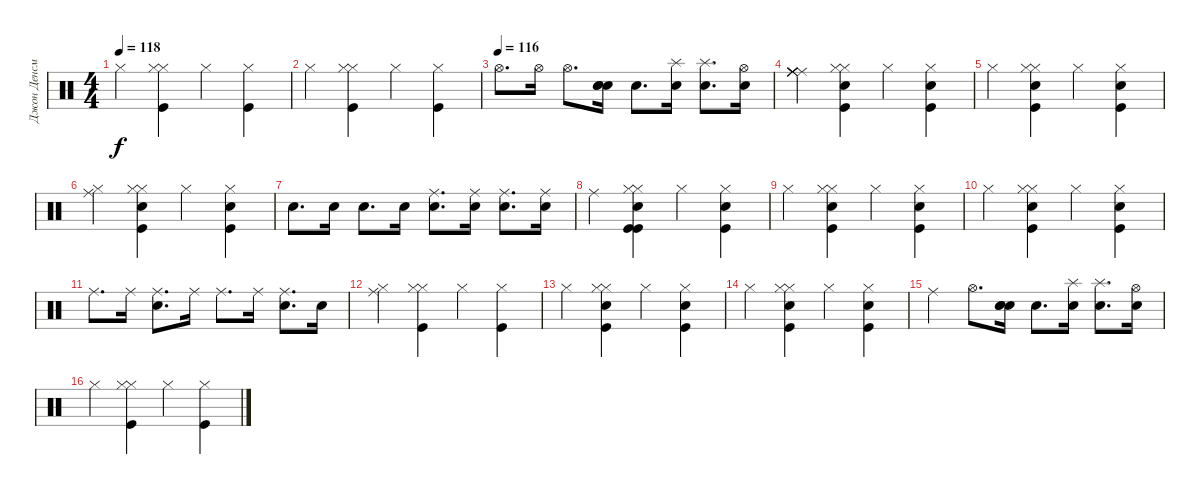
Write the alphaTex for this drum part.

\track ("Джон Денсмор" "Джон Денсм") {instrument percussion}
\staff {score}
\articulation defaults
\ts (4 4)
\tempo 118
\clef neutral
\ks c "Hi-Hat (closed)".4{dy f}
("Hi-Hat (closed)" "Hi-Hat (closed)" "Kick (hit)").4 "Hi-Hat (closed)".4 ("Hi-Hat (closed)" "Kick (hit)").4 |
"Hi-Hat (closed)".4 ("Hi-Hat (closed)" "Hi-Hat (closed)" "Kick (hit)").4 "Hi-Hat (closed)".4 ("Hi-Hat (closed)" "Kick (hit)").4 |
\tempo (116)
"Hi-Hat (open)".8{d} "Hi-Hat (open)".16 "Hi-Hat (open)".8{d} ("Snare (hit) 2" "Snare (hit) 2" "Snare (hit) 2").16 "Snare (hit) 2".8{d} ("Splash (hit)" "Snare (hit) 2").16 ("Splash (hit)" "Snare (hit) 2").8{d} ("Hi-Hat (open)" "Snare (hit) 2").16 |
("Ride (middle)" "Ride (middle)" "Ride (middle)" "Ride (middle)" "Ride (middle)" "Ride (middle)").4 ("Hi-Hat (closed)" "Hi-Hat (closed)" "Kick (hit)" "Snare (hit) 2").4 "Hi-Hat (closed)".4 ("Hi-Hat (closed)" "Snare (hit) 2" "Kick (hit)").4 |
"Hi-Hat (closed)".4 ("Hi-Hat (closed)" "Hi-Hat (closed)" "Kick (hit)" "Snare (hit) 2").4 "Hi-Hat (closed)".4 ("Hi-Hat (closed)" "Snare (hit) 2" "Kick (hit)").4 |
("Hi-Hat (closed)" "Ride (middle)").4 ("Hi-Hat (closed)" "Hi-Hat (closed)" "Kick (hit)" "Snare (hit) 2").4 "Hi-Hat (closed)".4 ("Hi-Hat (closed)" "Snare (hit) 2" "Kick (hit)").4 |
"Snare (hit) 2".8{d} "Snare (hit) 2".16 "Snare (hit) 2".8{d} "Snare (hit) 2".16 ("Ride (middle)" "Snare (hit) 2").8{d} ("Ride (middle)" "Snare (hit) 2").16 ("Ride (middle)" "Snare (hit) 2").8{d} ("Ride (middle)" "Snare (hit) 2").16 |
"Ride (middle)".4 ("Hi-Hat (closed)" "Hi-Hat (closed)" "Kick (hit)" "Kick (hit)" "Snare (hit) 2").4 "Hi-Hat (closed)".4 ("Hi-Hat (closed)" "Snare (hit) 2" "Kick (hit)").4 |
"Hi-Hat (closed)".4 ("Hi-Hat (closed)" "Hi-Hat (closed)" "Kick (hit)" "Snare (hit) 2").4 "Hi-Hat (closed)".4 ("Hi-Hat (closed)" "Snare (hit) 2" "Kick (hit)").4 |
"Hi-Hat (closed)".4 ("Hi-Hat (closed)" "Hi-Hat (closed)" "Kick (hit)" "Snare (hit) 2").4 "Hi-Hat (closed)".4 ("Hi-Hat (closed)" "Snare (hit) 2" "Kick (hit)").4 |
"Ride (middle)".8{d} "Ride (middle)".16 ("Snare (hit) 2" "Ride (middle)").8{d} "Ride (middle)".16 "Ride (middle)".8{d} "Ride (middle)".16 ("Snare (hit) 2" "Ride (middle)").8{d} "Snare (hit) 2".16 |
("Hi-Hat (closed)" "Ride (middle)").4 ("Hi-Hat (closed)" "Hi-Hat (closed)" "Kick (hit)").4 "Hi-Hat (closed)".4 ("Hi-Hat (closed)" "Kick (hit)").4 |
"Hi-Hat (closed)".4 ("Hi-Hat (closed)" "Hi-Hat (closed)" "Kick (hit)" "Snare (hit) 2").4 "Hi-Hat (closed)".4 ("Hi-Hat (closed)" "Snare (hit) 2" "Kick (hit)").4 |
"Hi-Hat (closed)".4 ("Hi-Hat (closed)" "Hi-Hat (closed)" "Kick (hit)" "Snare (hit) 2").4 "Hi-Hat (closed)".4 ("Hi-Hat (closed)" "Snare (hit) 2" "Kick (hit)").4 |
"Ride (middle)".4 "Hi-Hat (open)".8{d} ("Snare (hit) 2" "Snare (hit) 2" "Snare (hit) 2").16 "Snare (hit) 2".8{d} ("Splash (hit)" "Snare (hit) 2").16 ("Splash (hit)" "Snare (hit) 2").8{d} ("Hi-Hat (open)" "Snare (hit) 2").16 |
"Hi-Hat (closed)".4 ("Hi-Hat (closed)" "Hi-Hat (closed)" "Kick (hit)").4 "Hi-Hat (closed)".4 ("Hi-Hat (closed)" "Kick (hit)").4
